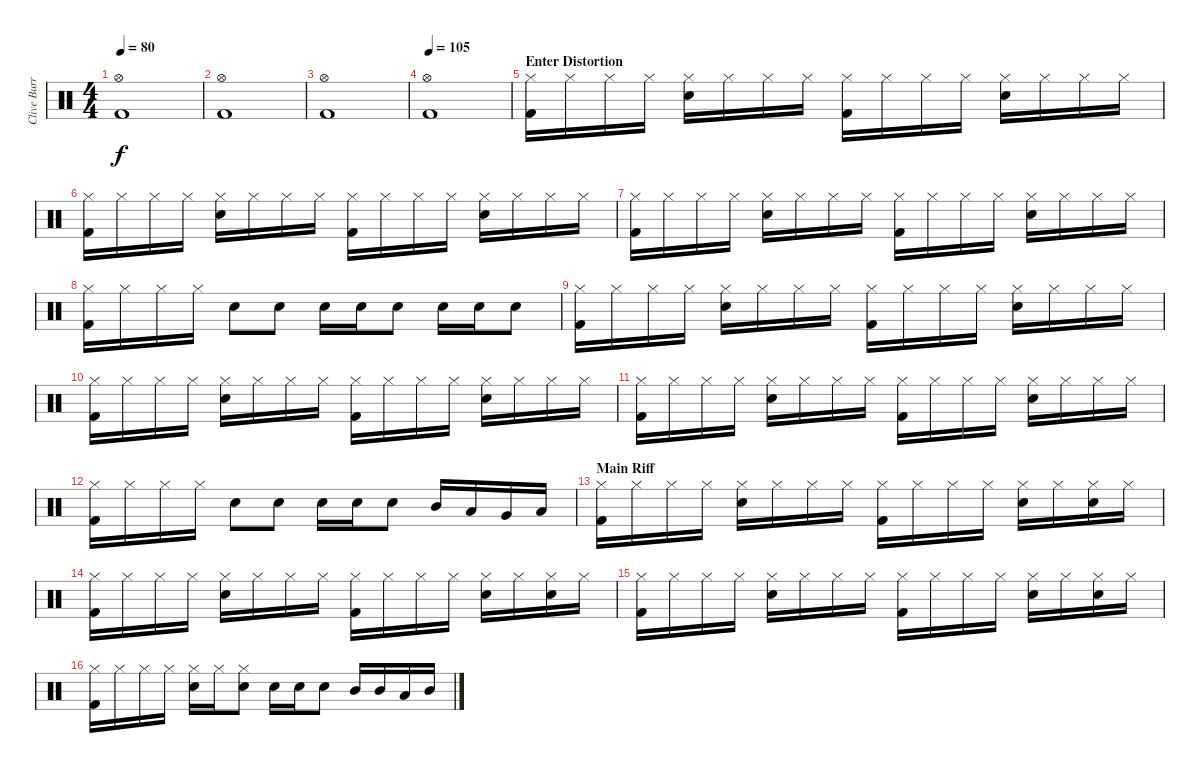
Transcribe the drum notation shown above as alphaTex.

\track ("Clive Burr (Drums)" "Clive Burr") {instrument percussion}
\staff {score}
\articulation defaults
\ts (4 4)
\tempo 80
\clef neutral
\ks c
("Hi-Hat (open)" "Kick (hit) 2").1{dy f} |
("Hi-Hat (open)" "Kick (hit) 2").1 |
("Hi-Hat (open)" "Kick (hit) 2").1 |
\tempo 105
("Hi-Hat (open)" "Kick (hit) 2").1 |
\section ("" "Enter Distortion")
("Hi-Hat (closed)" "Kick (hit) 2").16 "Hi-Hat (closed)".16 "Hi-Hat (closed)".16 "Hi-Hat (closed)".16 ("Electric Snare (hit)" "Hi-Hat (closed)").16 "Hi-Hat (closed)".16 "Hi-Hat (closed)".16 "Hi-Hat (closed)".16 ("Hi-Hat (closed)" "Kick (hit) 2").16 "Hi-Hat (closed)".16 "Hi-Hat (closed)".16 "Hi-Hat (closed)".16 ("Electric Snare (hit)" "Hi-Hat (closed)").16 "Hi-Hat (closed)".16 "Hi-Hat (closed)".16 "Hi-Hat (closed)".16 |
("Hi-Hat (closed)" "Kick (hit) 2").16 "Hi-Hat (closed)".16 "Hi-Hat (closed)".16 "Hi-Hat (closed)".16 ("Electric Snare (hit)" "Hi-Hat (closed)").16 "Hi-Hat (closed)".16 "Hi-Hat (closed)".16 "Hi-Hat (closed)".16 ("Hi-Hat (closed)" "Kick (hit) 2").16 "Hi-Hat (closed)".16 "Hi-Hat (closed)".16 "Hi-Hat (closed)".16 ("Electric Snare (hit)" "Hi-Hat (closed)").16 "Hi-Hat (closed)".16 "Hi-Hat (closed)".16 "Hi-Hat (closed)".16 |
("Hi-Hat (closed)" "Kick (hit) 2").16 "Hi-Hat (closed)".16 "Hi-Hat (closed)".16 "Hi-Hat (closed)".16 ("Electric Snare (hit)" "Hi-Hat (closed)").16 "Hi-Hat (closed)".16 "Hi-Hat (closed)".16 "Hi-Hat (closed)".16 ("Hi-Hat (closed)" "Kick (hit) 2").16 "Hi-Hat (closed)".16 "Hi-Hat (closed)".16 "Hi-Hat (closed)".16 ("Electric Snare (hit)" "Hi-Hat (closed)").16 "Hi-Hat (closed)".16 "Hi-Hat (closed)".16 "Hi-Hat (closed)".16 |
("Hi-Hat (closed)" "Kick (hit) 2").16 "Hi-Hat (closed)".16 "Hi-Hat (closed)".16 "Hi-Hat (closed)".16 "Electric Snare (hit)".8 "Electric Snare (hit)".8 "Electric Snare (hit)".16 "Electric Snare (hit)".16 "Electric Snare (hit)".8 "Electric Snare (hit)".16 "Electric Snare (hit)".16 "Electric Snare (hit)".8 |
("Hi-Hat (closed)" "Kick (hit) 2").16 "Hi-Hat (closed)".16 "Hi-Hat (closed)".16 "Hi-Hat (closed)".16 ("Electric Snare (hit)" "Hi-Hat (closed)").16 "Hi-Hat (closed)".16 "Hi-Hat (closed)".16 "Hi-Hat (closed)".16 ("Hi-Hat (closed)" "Kick (hit) 2").16 "Hi-Hat (closed)".16 "Hi-Hat (closed)".16 "Hi-Hat (closed)".16 ("Electric Snare (hit)" "Hi-Hat (closed)").16 "Hi-Hat (closed)".16 "Hi-Hat (closed)".16 "Hi-Hat (closed)".16 |
("Hi-Hat (closed)" "Kick (hit) 2").16 "Hi-Hat (closed)".16 "Hi-Hat (closed)".16 "Hi-Hat (closed)".16 ("Electric Snare (hit)" "Hi-Hat (closed)").16 "Hi-Hat (closed)".16 "Hi-Hat (closed)".16 "Hi-Hat (closed)".16 ("Hi-Hat (closed)" "Kick (hit) 2").16 "Hi-Hat (closed)".16 "Hi-Hat (closed)".16 "Hi-Hat (closed)".16 ("Electric Snare (hit)" "Hi-Hat (closed)").16 "Hi-Hat (closed)".16 "Hi-Hat (closed)".16 "Hi-Hat (closed)".16 |
("Hi-Hat (closed)" "Kick (hit) 2").16 "Hi-Hat (closed)".16 "Hi-Hat (closed)".16 "Hi-Hat (closed)".16 ("Electric Snare (hit)" "Hi-Hat (closed)").16 "Hi-Hat (closed)".16 "Hi-Hat (closed)".16 "Hi-Hat (closed)".16 ("Hi-Hat (closed)" "Kick (hit) 2").16 "Hi-Hat (closed)".16 "Hi-Hat (closed)".16 "Hi-Hat (closed)".16 ("Electric Snare (hit)" "Hi-Hat (closed)").16 "Hi-Hat (closed)".16 "Hi-Hat (closed)".16 "Hi-Hat (closed)".16 |
("Hi-Hat (closed)" "Kick (hit) 2").16 "Hi-Hat (closed)".16 "Hi-Hat (closed)".16 "Hi-Hat (closed)".16 "Electric Snare (hit)".8 "Electric Snare (hit)".8 "Electric Snare (hit)".16 "Electric Snare (hit)".16 "Electric Snare (hit)".8 "Mid Tom (hit)".16 "Low Tom (hit)".16 "Very Low Tom (hit)".16 "Low Tom (hit)".16 |
\section ("" "Main Riff")
("Hi-Hat (closed)" "Kick (hit) 2").16 "Hi-Hat (closed)".16 "Hi-Hat (closed)".16 "Hi-Hat (closed)".16 ("Electric Snare (hit)" "Hi-Hat (closed)").16 "Hi-Hat (closed)".16 "Hi-Hat (closed)".16 "Hi-Hat (closed)".16 ("Hi-Hat (closed)" "Kick (hit) 2").16 "Hi-Hat (closed)".16 "Hi-Hat (closed)".16 "Hi-Hat (closed)".16 ("Electric Snare (hit)" "Hi-Hat (closed)").16 "Hi-Hat (closed)".16 ("Electric Snare (hit)" "Hi-Hat (closed)").16 "Hi-Hat (closed)".16 |
("Hi-Hat (closed)" "Kick (hit) 2").16 "Hi-Hat (closed)".16 "Hi-Hat (closed)".16 "Hi-Hat (closed)".16 ("Electric Snare (hit)" "Hi-Hat (closed)").16 "Hi-Hat (closed)".16 "Hi-Hat (closed)".16 "Hi-Hat (closed)".16 ("Hi-Hat (closed)" "Kick (hit) 2").16 "Hi-Hat (closed)".16 "Hi-Hat (closed)".16 "Hi-Hat (closed)".16 ("Electric Snare (hit)" "Hi-Hat (closed)").16 "Hi-Hat (closed)".16 ("Electric Snare (hit)" "Hi-Hat (closed)").16 "Hi-Hat (closed)".16 |
("Hi-Hat (closed)" "Kick (hit) 2").16 "Hi-Hat (closed)".16 "Hi-Hat (closed)".16 "Hi-Hat (closed)".16 ("Electric Snare (hit)" "Hi-Hat (closed)").16 "Hi-Hat (closed)".16 "Hi-Hat (closed)".16 "Hi-Hat (closed)".16 ("Hi-Hat (closed)" "Kick (hit) 2").16 "Hi-Hat (closed)".16 "Hi-Hat (closed)".16 "Hi-Hat (closed)".16 ("Electric Snare (hit)" "Hi-Hat (closed)").16 "Hi-Hat (closed)".16 ("Electric Snare (hit)" "Hi-Hat (closed)").16 "Hi-Hat (closed)".16 |
("Hi-Hat (closed)" "Kick (hit) 2").16 "Hi-Hat (closed)".16 "Hi-Hat (closed)".16 "Hi-Hat (closed)".16 ("Electric Snare (hit)" "Hi-Hat (closed)").16 "Hi-Hat (closed)".16 ("Electric Snare (hit)" "Hi-Hat (closed)").8 "Electric Snare (hit)".16 "Electric Snare (hit)".16 "Electric Snare (hit)".8 "Mid Tom (hit)".16 "Mid Tom (hit)".16 "Low Tom (hit)".16 "Mid Tom (hit)".16
